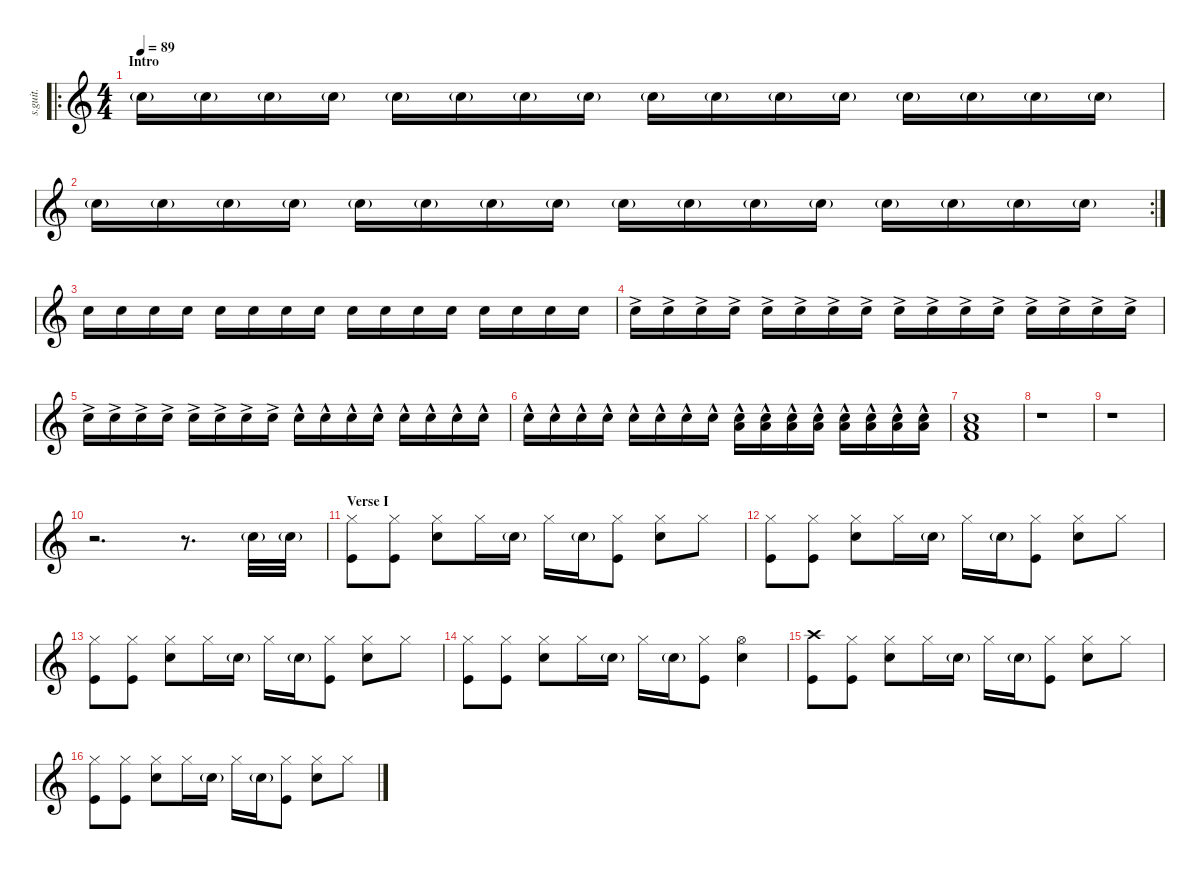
\defaultSystemsLayout 4
\hideDynamics
\bracketExtendMode nobrackets
\track ("Chad Smith" "s.guit.") {instrument percussion}
\staff {score}
\articulation defaults
\ro
\ts (4 4)
\beaming (8 2 2 2 2)
\section ("" "Intro")
\tempo 89
\clef g2
\ks c "Snare (hit) 2"{g}.16{lyrics (0 "") lyrics (1 "") lyrics (2 "") lyrics (3 "") lyrics (4 "") dy f} "Snare (hit) 2"{g}.16{lyrics (0 "") lyrics (1 "") lyrics (2 "") lyrics (3 "") lyrics (4 "")} "Snare (hit) 2"{g}.16{lyrics (0 "") lyrics (1 "") lyrics (2 "") lyrics (3 "") lyrics (4 "")} "Snare (hit) 2"{g}.16{lyrics (0 "") lyrics (1 "") lyrics (2 "") lyrics (3 "") lyrics (4 "")} "Snare (hit) 2"{g}.16{lyrics (0 "") lyrics (1 "") lyrics (2 "") lyrics (3 "") lyrics (4 "")} "Snare (hit) 2"{g}.16{lyrics (0 "") lyrics (1 "") lyrics (2 "") lyrics (3 "") lyrics (4 "")} "Snare (hit) 2"{g}.16{lyrics (0 "") lyrics (1 "") lyrics (2 "") lyrics (3 "") lyrics (4 "")} "Snare (hit) 2"{g}.16{lyrics (0 "") lyrics (1 "") lyrics (2 "") lyrics (3 "") lyrics (4 "")} "Snare (hit) 2"{g}.16{lyrics (0 "") lyrics (1 "") lyrics (2 "") lyrics (3 "") lyrics (4 "")} "Snare (hit) 2"{g}.16{lyrics (0 "") lyrics (1 "") lyrics (2 "") lyrics (3 "") lyrics (4 "")} "Snare (hit) 2"{g}.16{lyrics (0 "") lyrics (1 "") lyrics (2 "") lyrics (3 "") lyrics (4 "")} "Snare (hit) 2"{g}.16{lyrics (0 "") lyrics (1 "") lyrics (2 "") lyrics (3 "") lyrics (4 "")} "Snare (hit) 2"{g}.16{lyrics (0 "") lyrics (1 "") lyrics (2 "") lyrics (3 "") lyrics (4 "")} "Snare (hit) 2"{g}.16{lyrics (0 "") lyrics (1 "") lyrics (2 "") lyrics (3 "") lyrics (4 "")} "Snare (hit) 2"{g}.16{lyrics (0 "") lyrics (1 "") lyrics (2 "") lyrics (3 "") lyrics (4 "")} "Snare (hit) 2"{g}.16{lyrics (0 "") lyrics (1 "") lyrics (2 "") lyrics (3 "") lyrics (4 "")}
|
\rc 2 "Snare (hit) 2"{g}.16{lyrics (0 "") lyrics (1 "") lyrics (2 "") lyrics (3 "") lyrics (4 "")} "Snare (hit) 2"{g}.16{lyrics (0 "") lyrics (1 "") lyrics (2 "") lyrics (3 "") lyrics (4 "")} "Snare (hit) 2"{g}.16{lyrics (0 "") lyrics (1 "") lyrics (2 "") lyrics (3 "") lyrics (4 "")} "Snare (hit) 2"{g}.16{lyrics (0 "") lyrics (1 "") lyrics (2 "") lyrics (3 "") lyrics (4 "")} "Snare (hit) 2"{g}.16{lyrics (0 "") lyrics (1 "") lyrics (2 "") lyrics (3 "") lyrics (4 "")} "Snare (hit) 2"{g}.16{lyrics (0 "") lyrics (1 "") lyrics (2 "") lyrics (3 "") lyrics (4 "")} "Snare (hit) 2"{g}.16{lyrics (0 "") lyrics (1 "") lyrics (2 "") lyrics (3 "") lyrics (4 "")} "Snare (hit) 2"{g}.16{lyrics (0 "") lyrics (1 "") lyrics (2 "") lyrics (3 "") lyrics (4 "")} "Snare (hit) 2"{g}.16{lyrics (0 "") lyrics (1 "") lyrics (2 "") lyrics (3 "") lyrics (4 "")} "Snare (hit) 2"{g}.16{lyrics (0 "") lyrics (1 "") lyrics (2 "") lyrics (3 "") lyrics (4 "")} "Snare (hit) 2"{g}.16{lyrics (0 "") lyrics (1 "") lyrics (2 "") lyrics (3 "") lyrics (4 "")} "Snare (hit) 2"{g}.16{lyrics (0 "") lyrics (1 "") lyrics (2 "") lyrics (3 "") lyrics (4 "")} "Snare (hit) 2"{g}.16{lyrics (0 "") lyrics (1 "") lyrics (2 "") lyrics (3 "") lyrics (4 "")} "Snare (hit) 2"{g}.16{lyrics (0 "") lyrics (1 "") lyrics (2 "") lyrics (3 "") lyrics (4 "")} "Snare (hit) 2"{g}.16{lyrics (0 "") lyrics (1 "") lyrics (2 "") lyrics (3 "") lyrics (4 "")} "Snare (hit) 2"{g}.16{lyrics (0 "") lyrics (1 "") lyrics (2 "") lyrics (3 "") lyrics (4 "")}
|
"Snare (hit) 2".16{lyrics (0 "") lyrics (1 "") lyrics (2 "") lyrics (3 "") lyrics (4 "")} "Snare (hit) 2".16{lyrics (0 "") lyrics (1 "") lyrics (2 "") lyrics (3 "") lyrics (4 "")} "Snare (hit) 2".16{lyrics (0 "") lyrics (1 "") lyrics (2 "") lyrics (3 "") lyrics (4 "")} "Snare (hit) 2".16{lyrics (0 "") lyrics (1 "") lyrics (2 "") lyrics (3 "") lyrics (4 "")} "Snare (hit) 2".16{lyrics (0 "") lyrics (1 "") lyrics (2 "") lyrics (3 "") lyrics (4 "")} "Snare (hit) 2".16{lyrics (0 "") lyrics (1 "") lyrics (2 "") lyrics (3 "") lyrics (4 "")} "Snare (hit) 2".16{lyrics (0 "") lyrics (1 "") lyrics (2 "") lyrics (3 "") lyrics (4 "")} "Snare (hit) 2".16{lyrics (0 "") lyrics (1 "") lyrics (2 "") lyrics (3 "") lyrics (4 "")} "Snare (hit) 2".16{lyrics (0 "") lyrics (1 "") lyrics (2 "") lyrics (3 "") lyrics (4 "")} "Snare (hit) 2".16{lyrics (0 "") lyrics (1 "") lyrics (2 "") lyrics (3 "") lyrics (4 "")} "Snare (hit) 2".16{lyrics (0 "") lyrics (1 "") lyrics (2 "") lyrics (3 "") lyrics (4 "")} "Snare (hit) 2".16{lyrics (0 "") lyrics (1 "") lyrics (2 "") lyrics (3 "") lyrics (4 "")} "Snare (hit) 2".16{lyrics (0 "") lyrics (1 "") lyrics (2 "") lyrics (3 "") lyrics (4 "")} "Snare (hit) 2".16{lyrics (0 "") lyrics (1 "") lyrics (2 "") lyrics (3 "") lyrics (4 "")} "Snare (hit) 2".16{lyrics (0 "") lyrics (1 "") lyrics (2 "") lyrics (3 "") lyrics (4 "")} "Snare (hit) 2".16{lyrics (0 "") lyrics (1 "") lyrics (2 "") lyrics (3 "") lyrics (4 "")} |
"Snare (hit) 2"{ac}.16{lyrics (0 "") lyrics (1 "") lyrics (2 "") lyrics (3 "") lyrics (4 "")} "Snare (hit) 2"{ac}.16{lyrics (0 "") lyrics (1 "") lyrics (2 "") lyrics (3 "") lyrics (4 "")} "Snare (hit) 2"{ac}.16{lyrics (0 "") lyrics (1 "") lyrics (2 "") lyrics (3 "") lyrics (4 "")} "Snare (hit) 2"{ac}.16{lyrics (0 "") lyrics (1 "") lyrics (2 "") lyrics (3 "") lyrics (4 "")} "Snare (hit) 2"{ac}.16{lyrics (0 "") lyrics (1 "") lyrics (2 "") lyrics (3 "") lyrics (4 "")} "Snare (hit) 2"{ac}.16{lyrics (0 "") lyrics (1 "") lyrics (2 "") lyrics (3 "") lyrics (4 "")} "Snare (hit) 2"{ac}.16{lyrics (0 "") lyrics (1 "") lyrics (2 "") lyrics (3 "") lyrics (4 "")} "Snare (hit) 2"{ac}.16{lyrics (0 "") lyrics (1 "") lyrics (2 "") lyrics (3 "") lyrics (4 "")} "Snare (hit) 2"{ac}.16{lyrics (0 "") lyrics (1 "") lyrics (2 "") lyrics (3 "") lyrics (4 "")} "Snare (hit) 2"{ac}.16{lyrics (0 "") lyrics (1 "") lyrics (2 "") lyrics (3 "") lyrics (4 "")} "Snare (hit) 2"{ac}.16{lyrics (0 "") lyrics (1 "") lyrics (2 "") lyrics (3 "") lyrics (4 "")} "Snare (hit) 2"{ac}.16{lyrics (0 "") lyrics (1 "") lyrics (2 "") lyrics (3 "") lyrics (4 "")} "Snare (hit) 2"{ac}.16{lyrics (0 "") lyrics (1 "") lyrics (2 "") lyrics (3 "") lyrics (4 "")} "Snare (hit) 2"{ac}.16{lyrics (0 "") lyrics (1 "") lyrics (2 "") lyrics (3 "") lyrics (4 "")} "Snare (hit) 2"{ac}.16{lyrics (0 "") lyrics (1 "") lyrics (2 "") lyrics (3 "") lyrics (4 "")} "Snare (hit) 2"{ac}.16{lyrics (0 "") lyrics (1 "") lyrics (2 "") lyrics (3 "") lyrics (4 "")} |
"Snare (hit) 2"{ac}.16{lyrics (0 "") lyrics (1 "") lyrics (2 "") lyrics (3 "") lyrics (4 "")} "Snare (hit) 2"{ac}.16{lyrics (0 "") lyrics (1 "") lyrics (2 "") lyrics (3 "") lyrics (4 "")} "Snare (hit) 2"{ac}.16{lyrics (0 "") lyrics (1 "") lyrics (2 "") lyrics (3 "") lyrics (4 "")} "Snare (hit) 2"{ac}.16{lyrics (0 "") lyrics (1 "") lyrics (2 "") lyrics (3 "") lyrics (4 "")} "Snare (hit) 2"{ac}.16{lyrics (0 "") lyrics (1 "") lyrics (2 "") lyrics (3 "") lyrics (4 "")} "Snare (hit) 2"{ac}.16{lyrics (0 "") lyrics (1 "") lyrics (2 "") lyrics (3 "") lyrics (4 "")} "Snare (hit) 2"{ac}.16{lyrics (0 "") lyrics (1 "") lyrics (2 "") lyrics (3 "") lyrics (4 "")} "Snare (hit) 2"{ac}.16{lyrics (0 "") lyrics (1 "") lyrics (2 "") lyrics (3 "") lyrics (4 "")} "Snare (hit) 2"{hac}.16{lyrics (0 "") lyrics (1 "") lyrics (2 "") lyrics (3 "") lyrics (4 "")} "Snare (hit) 2"{hac}.16{lyrics (0 "") lyrics (1 "") lyrics (2 "") lyrics (3 "") lyrics (4 "")} "Snare (hit) 2"{hac}.16{lyrics (0 "") lyrics (1 "") lyrics (2 "") lyrics (3 "") lyrics (4 "")} "Snare (hit) 2"{hac}.16{lyrics (0 "") lyrics (1 "") lyrics (2 "") lyrics (3 "") lyrics (4 "")} "Snare (hit) 2"{hac}.16{lyrics (0 "") lyrics (1 "") lyrics (2 "") lyrics (3 "") lyrics (4 "")} "Snare (hit) 2"{hac}.16{lyrics (0 "") lyrics (1 "") lyrics (2 "") lyrics (3 "") lyrics (4 "")} "Snare (hit) 2"{hac}.16{lyrics (0 "") lyrics (1 "") lyrics (2 "") lyrics (3 "") lyrics (4 "")} "Snare (hit) 2"{hac}.16{lyrics (0 "") lyrics (1 "") lyrics (2 "") lyrics (3 "") lyrics (4 "")} |
"Snare (hit) 2"{hac}.16{lyrics (0 "") lyrics (1 "") lyrics (2 "") lyrics (3 "") lyrics (4 "")} "Snare (hit) 2"{hac}.16{lyrics (0 "") lyrics (1 "") lyrics (2 "") lyrics (3 "") lyrics (4 "")} "Snare (hit) 2"{hac}.16{lyrics (0 "") lyrics (1 "") lyrics (2 "") lyrics (3 "") lyrics (4 "")} "Snare (hit) 2"{hac}.16{lyrics (0 "") lyrics (1 "") lyrics (2 "") lyrics (3 "") lyrics (4 "")} "Snare (hit) 2"{hac}.16{lyrics (0 "") lyrics (1 "") lyrics (2 "") lyrics (3 "") lyrics (4 "")} "Snare (hit) 2"{hac}.16{lyrics (0 "") lyrics (1 "") lyrics (2 "") lyrics (3 "") lyrics (4 "")} "Snare (hit) 2"{hac}.16{lyrics (0 "") lyrics (1 "") lyrics (2 "") lyrics (3 "") lyrics (4 "")} "Snare (hit) 2"{hac}.16{lyrics (0 "") lyrics (1 "") lyrics (2 "") lyrics (3 "") lyrics (4 "")} ("Snare (hit) 2"{hac} "Low Floor Tom (hit)").16{lyrics (0 "") lyrics (1 "") lyrics (2 "") lyrics (3 "") lyrics (4 "") dy fff} ("Snare (hit) 2"{hac} "Low Floor Tom (hit)").16{lyrics (0 "") lyrics (1 "") lyrics (2 "") lyrics (3 "") lyrics (4 "")} ("Snare (hit) 2"{hac} "Low Floor Tom (hit)").16{lyrics (0 "") lyrics (1 "") lyrics (2 "") lyrics (3 "") lyrics (4 "")} ("Snare (hit) 2"{hac} "Low Floor Tom (hit)").16{lyrics (0 "") lyrics (1 "") lyrics (2 "") lyrics (3 "") lyrics (4 "")} ("Snare (hit) 2"{hac} "Low Floor Tom (hit)").16{lyrics (0 "") lyrics (1 "") lyrics (2 "") lyrics (3 "") lyrics (4 "")} ("Snare (hit) 2"{hac} "Low Floor Tom (hit)").16{lyrics (0 "") lyrics (1 "") lyrics (2 "") lyrics (3 "") lyrics (4 "")} ("Snare (hit) 2"{hac} "Low Floor Tom (hit)").16{lyrics (0 "") lyrics (1 "") lyrics (2 "") lyrics (3 "") lyrics (4 "")} ("Snare (hit) 2"{hac} "Low Floor Tom (hit)").16{lyrics (0 "") lyrics (1 "") lyrics (2 "") lyrics (3 "") lyrics (4 "")} |
("Low Floor Tom (hit)" "Snare (hit) 2" "Kick (hit) 2").1{lyrics (0 "") lyrics (1 "") lyrics (2 "") lyrics (3 "") lyrics (4 "")} |
r.1 |
r.1 |
r.2{d} r.8{d} "Snare (hit) 2"{g}.32{lyrics (0 "") lyrics (1 "") lyrics (2 "") lyrics (3 "") lyrics (4 "") dy ppp} "Snare (hit) 2"{g}.32{lyrics (0 "") lyrics (1 "") lyrics (2 "") lyrics (3 "") lyrics (4 "")} |
\section ("" "Verse I")
("Hi-Hat (closed)" "Kick (hit)").8{lyrics (0 "") lyrics (1 "") lyrics (2 "") lyrics (3 "") lyrics (4 "") dy f} ("Hi-Hat (closed)" "Kick (hit)").8{lyrics (0 "") lyrics (1 "") lyrics (2 "") lyrics (3 "") lyrics (4 "")} ("Hi-Hat (closed)" "Snare (hit) 2").8{lyrics (0 "") lyrics (1 "") lyrics (2 "") lyrics (3 "") lyrics (4 "")} "Hi-Hat (closed)".16{lyrics (0 "") lyrics (1 "") lyrics (2 "") lyrics (3 "") lyrics (4 "")} "Snare (hit) 2"{g}.16{lyrics (0 "") lyrics (1 "") lyrics (2 "") lyrics (3 "") lyrics (4 "") dy ppp} "Hi-Hat (closed)".16{lyrics (0 "") lyrics (1 "") lyrics (2 "") lyrics (3 "") lyrics (4 "") dy fff} "Snare (hit) 2"{g}.16{lyrics (0 "") lyrics (1 "") lyrics (2 "") lyrics (3 "") lyrics (4 "") dy ppp} ("Hi-Hat (closed)" "Kick (hit)").8{lyrics (0 "") lyrics (1 "") lyrics (2 "") lyrics (3 "") lyrics (4 "") dy f} ("Hi-Hat (closed)" "Snare (hit) 2").8{lyrics (0 "") lyrics (1 "") lyrics (2 "") lyrics (3 "") lyrics (4 "")} "Hi-Hat (closed)".8{lyrics (0 "") lyrics (1 "") lyrics (2 "") lyrics (3 "") lyrics (4 "")} |
("Hi-Hat (closed)" "Kick (hit)").8{lyrics (0 "") lyrics (1 "") lyrics (2 "") lyrics (3 "") lyrics (4 "")} ("Hi-Hat (closed)" "Kick (hit)").8{lyrics (0 "") lyrics (1 "") lyrics (2 "") lyrics (3 "") lyrics (4 "")} ("Hi-Hat (closed)" "Snare (hit) 2").8{lyrics (0 "") lyrics (1 "") lyrics (2 "") lyrics (3 "") lyrics (4 "")} "Hi-Hat (closed)".16{lyrics (0 "") lyrics (1 "") lyrics (2 "") lyrics (3 "") lyrics (4 "")} "Snare (hit) 2"{g}.16{lyrics (0 "") lyrics (1 "") lyrics (2 "") lyrics (3 "") lyrics (4 "") dy ppp} "Hi-Hat (closed)".16{lyrics (0 "") lyrics (1 "") lyrics (2 "") lyrics (3 "") lyrics (4 "") dy fff} "Snare (hit) 2"{g}.16{lyrics (0 "") lyrics (1 "") lyrics (2 "") lyrics (3 "") lyrics (4 "") dy ppp} ("Hi-Hat (closed)" "Kick (hit)").8{lyrics (0 "") lyrics (1 "") lyrics (2 "") lyrics (3 "") lyrics (4 "") dy f} ("Hi-Hat (closed)" "Snare (hit) 2").8{lyrics (0 "") lyrics (1 "") lyrics (2 "") lyrics (3 "") lyrics (4 "")} "Hi-Hat (closed)".8{lyrics (0 "") lyrics (1 "") lyrics (2 "") lyrics (3 "") lyrics (4 "")} |
("Hi-Hat (closed)" "Kick (hit)").8{lyrics (0 "") lyrics (1 "") lyrics (2 "") lyrics (3 "") lyrics (4 "")} ("Hi-Hat (closed)" "Kick (hit)").8{lyrics (0 "") lyrics (1 "") lyrics (2 "") lyrics (3 "") lyrics (4 "")} ("Hi-Hat (closed)" "Snare (hit) 2").8{lyrics (0 "") lyrics (1 "") lyrics (2 "") lyrics (3 "") lyrics (4 "")} "Hi-Hat (closed)".16{lyrics (0 "") lyrics (1 "") lyrics (2 "") lyrics (3 "") lyrics (4 "")} "Snare (hit) 2"{g}.16{lyrics (0 "") lyrics (1 "") lyrics (2 "") lyrics (3 "") lyrics (4 "") dy ppp} "Hi-Hat (closed)".16{lyrics (0 "") lyrics (1 "") lyrics (2 "") lyrics (3 "") lyrics (4 "") dy fff} "Snare (hit) 2"{g}.16{lyrics (0 "") lyrics (1 "") lyrics (2 "") lyrics (3 "") lyrics (4 "") dy ppp} ("Hi-Hat (closed)" "Kick (hit)").8{lyrics (0 "") lyrics (1 "") lyrics (2 "") lyrics (3 "") lyrics (4 "") dy f} ("Hi-Hat (closed)" "Snare (hit) 2").8{lyrics (0 "") lyrics (1 "") lyrics (2 "") lyrics (3 "") lyrics (4 "")} "Hi-Hat (closed)".8{lyrics (0 "") lyrics (1 "") lyrics (2 "") lyrics (3 "") lyrics (4 "")} |
("Hi-Hat (closed)" "Kick (hit)").8{lyrics (0 "") lyrics (1 "") lyrics (2 "") lyrics (3 "") lyrics (4 "")} ("Hi-Hat (closed)" "Kick (hit)").8{lyrics (0 "") lyrics (1 "") lyrics (2 "") lyrics (3 "") lyrics (4 "")} ("Hi-Hat (closed)" "Snare (hit) 2").8{lyrics (0 "") lyrics (1 "") lyrics (2 "") lyrics (3 "") lyrics (4 "")} "Hi-Hat (closed)".16{lyrics (0 "") lyrics (1 "") lyrics (2 "") lyrics (3 "") lyrics (4 "")} "Snare (hit) 2"{g}.16{lyrics (0 "") lyrics (1 "") lyrics (2 "") lyrics (3 "") lyrics (4 "") dy ppp} "Hi-Hat (closed)".16{lyrics (0 "") lyrics (1 "") lyrics (2 "") lyrics (3 "") lyrics (4 "") dy fff} "Snare (hit) 2"{g}.16{lyrics (0 "") lyrics (1 "") lyrics (2 "") lyrics (3 "") lyrics (4 "") dy ppp} ("Hi-Hat (closed)" "Kick (hit)").8{lyrics (0 "") lyrics (1 "") lyrics (2 "") lyrics (3 "") lyrics (4 "") dy f} ("Hi-Hat (open)" "Snare (hit) 2").4{lyrics (0 "") lyrics (1 "") lyrics (2 "") lyrics (3 "") lyrics (4 "")} |
("Crash high (hit)" "Kick (hit)").8{lyrics (0 "") lyrics (1 "") lyrics (2 "") lyrics (3 "") lyrics (4 "")} ("Hi-Hat (closed)" "Kick (hit)").8{lyrics (0 "") lyrics (1 "") lyrics (2 "") lyrics (3 "") lyrics (4 "")} ("Hi-Hat (closed)" "Snare (hit) 2").8{lyrics (0 "") lyrics (1 "") lyrics (2 "") lyrics (3 "") lyrics (4 "")} "Hi-Hat (closed)".16{lyrics (0 "") lyrics (1 "") lyrics (2 "") lyrics (3 "") lyrics (4 "")} "Snare (hit) 2"{g}.16{lyrics (0 "") lyrics (1 "") lyrics (2 "") lyrics (3 "") lyrics (4 "") dy ppp} "Hi-Hat (closed)".16{lyrics (0 "") lyrics (1 "") lyrics (2 "") lyrics (3 "") lyrics (4 "") dy fff} "Snare (hit) 2"{g}.16{lyrics (0 "") lyrics (1 "") lyrics (2 "") lyrics (3 "") lyrics (4 "") dy ppp} ("Hi-Hat (closed)" "Kick (hit)").8{lyrics (0 "") lyrics (1 "") lyrics (2 "") lyrics (3 "") lyrics (4 "") dy f} ("Hi-Hat (closed)" "Snare (hit) 2").8{lyrics (0 "") lyrics (1 "") lyrics (2 "") lyrics (3 "") lyrics (4 "")} "Hi-Hat (closed)".8{lyrics (0 "") lyrics (1 "") lyrics (2 "") lyrics (3 "") lyrics (4 "")} |
("Hi-Hat (closed)" "Kick (hit)").8{lyrics (0 "") lyrics (1 "") lyrics (2 "") lyrics (3 "") lyrics (4 "")} ("Hi-Hat (closed)" "Kick (hit)").8{lyrics (0 "") lyrics (1 "") lyrics (2 "") lyrics (3 "") lyrics (4 "")} ("Hi-Hat (closed)" "Snare (hit) 2").8{lyrics (0 "") lyrics (1 "") lyrics (2 "") lyrics (3 "") lyrics (4 "")} "Hi-Hat (closed)".16{lyrics (0 "") lyrics (1 "") lyrics (2 "") lyrics (3 "") lyrics (4 "")} "Snare (hit) 2"{g}.16{lyrics (0 "") lyrics (1 "") lyrics (2 "") lyrics (3 "") lyrics (4 "") dy ppp} "Hi-Hat (closed)".16{lyrics (0 "") lyrics (1 "") lyrics (2 "") lyrics (3 "") lyrics (4 "") dy fff} "Snare (hit) 2"{g}.16{lyrics (0 "") lyrics (1 "") lyrics (2 "") lyrics (3 "") lyrics (4 "") dy ppp} ("Hi-Hat (closed)" "Kick (hit)").8{lyrics (0 "") lyrics (1 "") lyrics (2 "") lyrics (3 "") lyrics (4 "") dy f} ("Hi-Hat (closed)" "Snare (hit) 2").8{lyrics (0 "") lyrics (1 "") lyrics (2 "") lyrics (3 "") lyrics (4 "")} "Hi-Hat (closed)".8{lyrics (0 "") lyrics (1 "") lyrics (2 "") lyrics (3 "") lyrics (4 "")}
